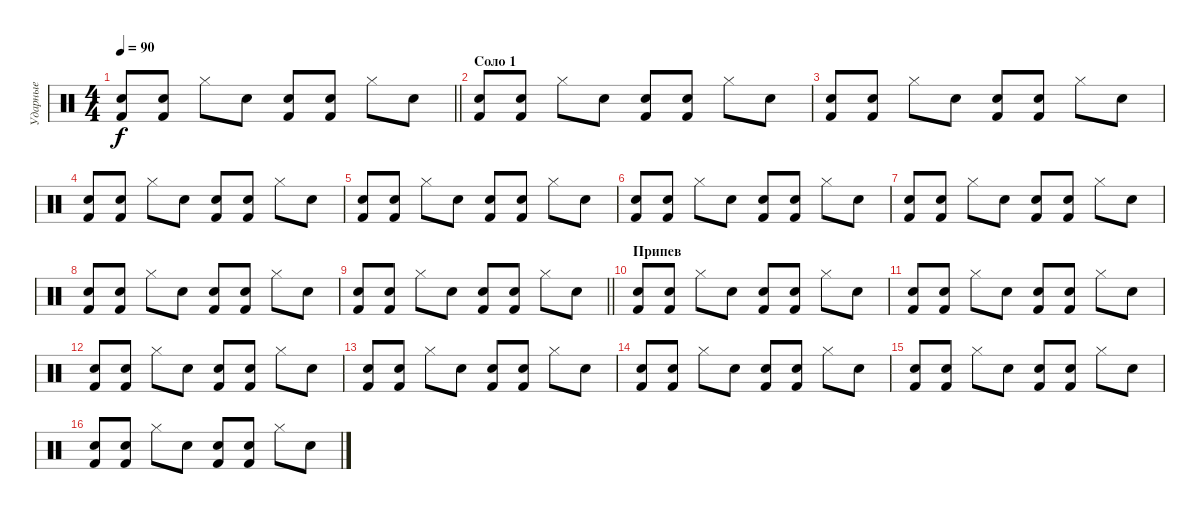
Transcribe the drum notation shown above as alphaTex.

\track ("Ударные" "Ударные") {instrument percussion}
\staff {score}
\articulation defaults
\ts (4 4)
\tempo 90
\clef neutral
\barLineRight lightlight
\ks c
("Kick (hit) 2" "Snare (hit) 2").8{dy f} ("Kick (hit) 2" "Snare (hit) 2").8 "Hi-Hat (closed)".8 "Snare (hit) 2".8 ("Kick (hit) 2" "Snare (hit) 2").8 ("Kick (hit) 2" "Snare (hit) 2").8 "Hi-Hat (closed)".8 "Snare (hit) 2".8 |
\section ("" "Соло 1")
("Kick (hit) 2" "Snare (hit) 2").8 ("Kick (hit) 2" "Snare (hit) 2").8 "Hi-Hat (closed)".8 "Snare (hit) 2".8 ("Kick (hit) 2" "Snare (hit) 2").8 ("Kick (hit) 2" "Snare (hit) 2").8 "Hi-Hat (closed)".8 "Snare (hit) 2".8 |
("Kick (hit) 2" "Snare (hit) 2").8 ("Kick (hit) 2" "Snare (hit) 2").8 "Hi-Hat (closed)".8 "Snare (hit) 2".8 ("Kick (hit) 2" "Snare (hit) 2").8 ("Kick (hit) 2" "Snare (hit) 2").8 "Hi-Hat (closed)".8 "Snare (hit) 2".8 |
("Kick (hit) 2" "Snare (hit) 2").8 ("Kick (hit) 2" "Snare (hit) 2").8 "Hi-Hat (closed)".8 "Snare (hit) 2".8 ("Kick (hit) 2" "Snare (hit) 2").8 ("Kick (hit) 2" "Snare (hit) 2").8 "Hi-Hat (closed)".8 "Snare (hit) 2".8 |
("Kick (hit) 2" "Snare (hit) 2").8 ("Kick (hit) 2" "Snare (hit) 2").8 "Hi-Hat (closed)".8 "Snare (hit) 2".8 ("Kick (hit) 2" "Snare (hit) 2").8 ("Kick (hit) 2" "Snare (hit) 2").8 "Hi-Hat (closed)".8 "Snare (hit) 2".8 |
("Kick (hit) 2" "Snare (hit) 2").8 ("Kick (hit) 2" "Snare (hit) 2").8 "Hi-Hat (closed)".8 "Snare (hit) 2".8 ("Kick (hit) 2" "Snare (hit) 2").8 ("Kick (hit) 2" "Snare (hit) 2").8 "Hi-Hat (closed)".8 "Snare (hit) 2".8 |
("Kick (hit) 2" "Snare (hit) 2").8 ("Kick (hit) 2" "Snare (hit) 2").8 "Hi-Hat (closed)".8 "Snare (hit) 2".8 ("Kick (hit) 2" "Snare (hit) 2").8 ("Kick (hit) 2" "Snare (hit) 2").8 "Hi-Hat (closed)".8 "Snare (hit) 2".8 |
("Kick (hit) 2" "Snare (hit) 2").8 ("Kick (hit) 2" "Snare (hit) 2").8 "Hi-Hat (closed)".8 "Snare (hit) 2".8 ("Kick (hit) 2" "Snare (hit) 2").8 ("Kick (hit) 2" "Snare (hit) 2").8 "Hi-Hat (closed)".8 "Snare (hit) 2".8 |
\barLineRight lightlight
("Kick (hit) 2" "Snare (hit) 2").8 ("Kick (hit) 2" "Snare (hit) 2").8 "Hi-Hat (closed)".8 "Snare (hit) 2".8 ("Kick (hit) 2" "Snare (hit) 2").8 ("Kick (hit) 2" "Snare (hit) 2").8 "Hi-Hat (closed)".8 "Snare (hit) 2".8 |
\section ("" "Припев")
("Kick (hit) 2" "Snare (hit) 2").8 ("Kick (hit) 2" "Snare (hit) 2").8 "Hi-Hat (closed)".8 "Snare (hit) 2".8 ("Kick (hit) 2" "Snare (hit) 2").8 ("Kick (hit) 2" "Snare (hit) 2").8 "Hi-Hat (closed)".8 "Snare (hit) 2".8 |
("Kick (hit) 2" "Snare (hit) 2").8 ("Kick (hit) 2" "Snare (hit) 2").8 "Hi-Hat (closed)".8 "Snare (hit) 2".8 ("Kick (hit) 2" "Snare (hit) 2").8 ("Kick (hit) 2" "Snare (hit) 2").8 "Hi-Hat (closed)".8 "Snare (hit) 2".8 |
("Kick (hit) 2" "Snare (hit) 2").8 ("Kick (hit) 2" "Snare (hit) 2").8 "Hi-Hat (closed)".8 "Snare (hit) 2".8 ("Kick (hit) 2" "Snare (hit) 2").8 ("Kick (hit) 2" "Snare (hit) 2").8 "Hi-Hat (closed)".8 "Snare (hit) 2".8 |
("Kick (hit) 2" "Snare (hit) 2").8 ("Kick (hit) 2" "Snare (hit) 2").8 "Hi-Hat (closed)".8 "Snare (hit) 2".8 ("Kick (hit) 2" "Snare (hit) 2").8 ("Kick (hit) 2" "Snare (hit) 2").8 "Hi-Hat (closed)".8 "Snare (hit) 2".8 |
("Kick (hit) 2" "Snare (hit) 2").8 ("Kick (hit) 2" "Snare (hit) 2").8 "Hi-Hat (closed)".8 "Snare (hit) 2".8 ("Kick (hit) 2" "Snare (hit) 2").8 ("Kick (hit) 2" "Snare (hit) 2").8 "Hi-Hat (closed)".8 "Snare (hit) 2".8 |
("Kick (hit) 2" "Snare (hit) 2").8 ("Kick (hit) 2" "Snare (hit) 2").8 "Hi-Hat (closed)".8 "Snare (hit) 2".8 ("Kick (hit) 2" "Snare (hit) 2").8 ("Kick (hit) 2" "Snare (hit) 2").8 "Hi-Hat (closed)".8 "Snare (hit) 2".8 |
("Kick (hit) 2" "Snare (hit) 2").8 ("Kick (hit) 2" "Snare (hit) 2").8 "Hi-Hat (closed)".8 "Snare (hit) 2".8 ("Kick (hit) 2" "Snare (hit) 2").8 ("Kick (hit) 2" "Snare (hit) 2").8 "Hi-Hat (closed)".8 "Snare (hit) 2".8
